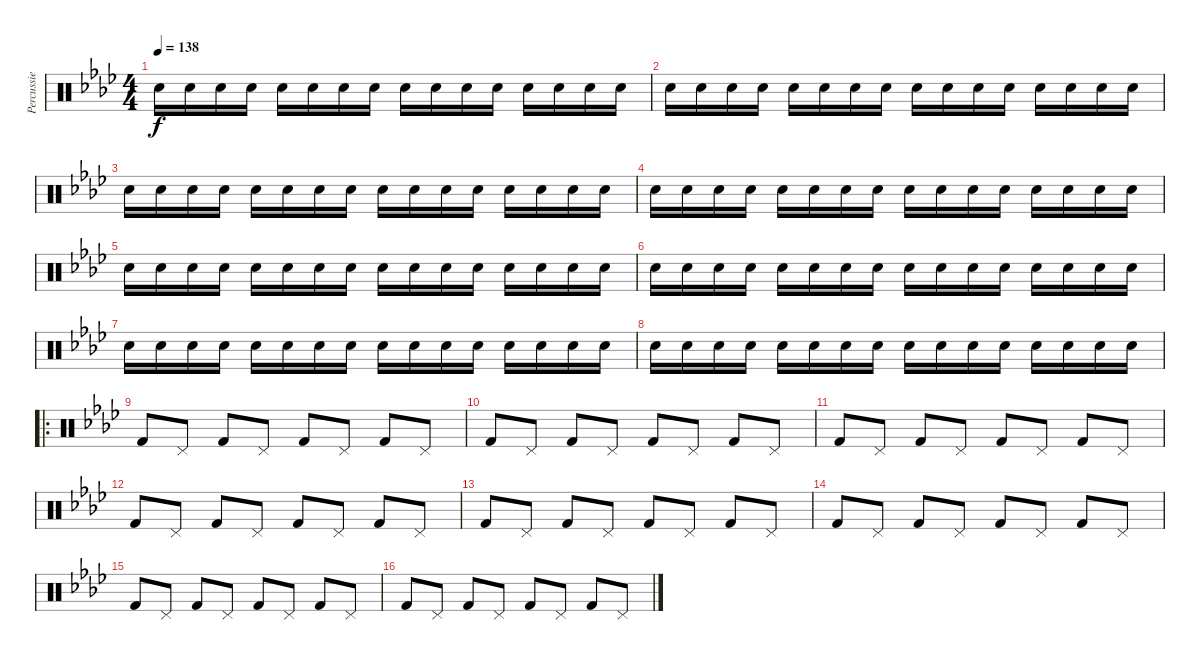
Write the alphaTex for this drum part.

\track ("Percussie" "Percussie") {instrument percussion}
\staff {score}
\articulation defaults
\ts (4 4)
\tempo 138
\clef neutral
\ks ab "Snare (hit) 2".16{dy f volume 8} "Snare (hit) 2".16 "Snare (hit) 2".16 "Snare (hit) 2".16 "Snare (hit) 2".16 "Snare (hit) 2".16 "Snare (hit) 2".16 "Snare (hit) 2".16 "Snare (hit) 2".16 "Snare (hit) 2".16 "Snare (hit) 2".16 "Snare (hit) 2".16 "Snare (hit) 2".16 "Snare (hit) 2".16 "Snare (hit) 2".16 "Snare (hit) 2".16
|
"Snare (hit) 2".16 "Snare (hit) 2".16 "Snare (hit) 2".16 "Snare (hit) 2".16 "Snare (hit) 2".16 "Snare (hit) 2".16 "Snare (hit) 2".16 "Snare (hit) 2".16 "Snare (hit) 2".16 "Snare (hit) 2".16 "Snare (hit) 2".16 "Snare (hit) 2".16 "Snare (hit) 2".16 "Snare (hit) 2".16 "Snare (hit) 2".16 "Snare (hit) 2".16 |
"Snare (hit) 2".16 "Snare (hit) 2".16 "Snare (hit) 2".16 "Snare (hit) 2".16 "Snare (hit) 2".16 "Snare (hit) 2".16 "Snare (hit) 2".16 "Snare (hit) 2".16 "Snare (hit) 2".16 "Snare (hit) 2".16 "Snare (hit) 2".16 "Snare (hit) 2".16 "Snare (hit) 2".16 "Snare (hit) 2".16 "Snare (hit) 2".16 "Snare (hit) 2".16 |
"Snare (hit) 2".16 "Snare (hit) 2".16 "Snare (hit) 2".16 "Snare (hit) 2".16 "Snare (hit) 2".16 "Snare (hit) 2".16 "Snare (hit) 2".16 "Snare (hit) 2".16 "Snare (hit) 2".16 "Snare (hit) 2".16 "Snare (hit) 2".16 "Snare (hit) 2".16 "Snare (hit) 2".16 "Snare (hit) 2".16 "Snare (hit) 2".16 "Snare (hit) 2".16 |
"Snare (hit) 2".16{volume 16} "Snare (hit) 2".16 "Snare (hit) 2".16 "Snare (hit) 2".16 "Snare (hit) 2".16 "Snare (hit) 2".16 "Snare (hit) 2".16 "Snare (hit) 2".16 "Snare (hit) 2".16 "Snare (hit) 2".16 "Snare (hit) 2".16 "Snare (hit) 2".16 "Snare (hit) 2".16 "Snare (hit) 2".16 "Snare (hit) 2".16 "Snare (hit) 2".16 |
"Snare (hit) 2".16 "Snare (hit) 2".16 "Snare (hit) 2".16 "Snare (hit) 2".16 "Snare (hit) 2".16 "Snare (hit) 2".16 "Snare (hit) 2".16 "Snare (hit) 2".16 "Snare (hit) 2".16 "Snare (hit) 2".16 "Snare (hit) 2".16 "Snare (hit) 2".16 "Snare (hit) 2".16 "Snare (hit) 2".16 "Snare (hit) 2".16 "Snare (hit) 2".16 |
"Snare (hit) 2".16 "Snare (hit) 2".16 "Snare (hit) 2".16 "Snare (hit) 2".16 "Snare (hit) 2".16 "Snare (hit) 2".16 "Snare (hit) 2".16 "Snare (hit) 2".16 "Snare (hit) 2".16 "Snare (hit) 2".16 "Snare (hit) 2".16 "Snare (hit) 2".16 "Snare (hit) 2".16 "Snare (hit) 2".16 "Snare (hit) 2".16 "Snare (hit) 2".16 |
"Snare (hit) 2".16 "Snare (hit) 2".16 "Snare (hit) 2".16 "Snare (hit) 2".16 "Snare (hit) 2".16 "Snare (hit) 2".16 "Snare (hit) 2".16 "Snare (hit) 2".16 "Snare (hit) 2".16 "Snare (hit) 2".16 "Snare (hit) 2".16 "Snare (hit) 2".16 "Snare (hit) 2".16 "Snare (hit) 2".16 "Snare (hit) 2".16 "Snare (hit) 2".16 |
\ro "Kick (hit) 2".8 "Pedal Hi-Hat (hit)".8 "Kick (hit) 2".8 "Pedal Hi-Hat (hit)".8 "Kick (hit) 2".8 "Pedal Hi-Hat (hit)".8 "Kick (hit) 2".8 "Pedal Hi-Hat (hit)".8
|
"Kick (hit) 2".8 "Pedal Hi-Hat (hit)".8 "Kick (hit) 2".8 "Pedal Hi-Hat (hit)".8 "Kick (hit) 2".8 "Pedal Hi-Hat (hit)".8 "Kick (hit) 2".8 "Pedal Hi-Hat (hit)".8 |
"Kick (hit) 2".8 "Pedal Hi-Hat (hit)".8 "Kick (hit) 2".8 "Pedal Hi-Hat (hit)".8 "Kick (hit) 2".8 "Pedal Hi-Hat (hit)".8 "Kick (hit) 2".8 "Pedal Hi-Hat (hit)".8 |
"Kick (hit) 2".8 "Pedal Hi-Hat (hit)".8 "Kick (hit) 2".8 "Pedal Hi-Hat (hit)".8 "Kick (hit) 2".8 "Pedal Hi-Hat (hit)".8 "Kick (hit) 2".8 "Pedal Hi-Hat (hit)".8 |
"Kick (hit) 2".8 "Pedal Hi-Hat (hit)".8 "Kick (hit) 2".8 "Pedal Hi-Hat (hit)".8 "Kick (hit) 2".8 "Pedal Hi-Hat (hit)".8 "Kick (hit) 2".8 "Pedal Hi-Hat (hit)".8 |
"Kick (hit) 2".8 "Pedal Hi-Hat (hit)".8 "Kick (hit) 2".8 "Pedal Hi-Hat (hit)".8 "Kick (hit) 2".8 "Pedal Hi-Hat (hit)".8 "Kick (hit) 2".8 "Pedal Hi-Hat (hit)".8 |
"Kick (hit) 2".8 "Pedal Hi-Hat (hit)".8 "Kick (hit) 2".8 "Pedal Hi-Hat (hit)".8 "Kick (hit) 2".8 "Pedal Hi-Hat (hit)".8 "Kick (hit) 2".8 "Pedal Hi-Hat (hit)".8 |
"Kick (hit) 2".8 "Pedal Hi-Hat (hit)".8 "Kick (hit) 2".8 "Pedal Hi-Hat (hit)".8 "Kick (hit) 2".8 "Pedal Hi-Hat (hit)".8 "Kick (hit) 2".8 "Pedal Hi-Hat (hit)".8
